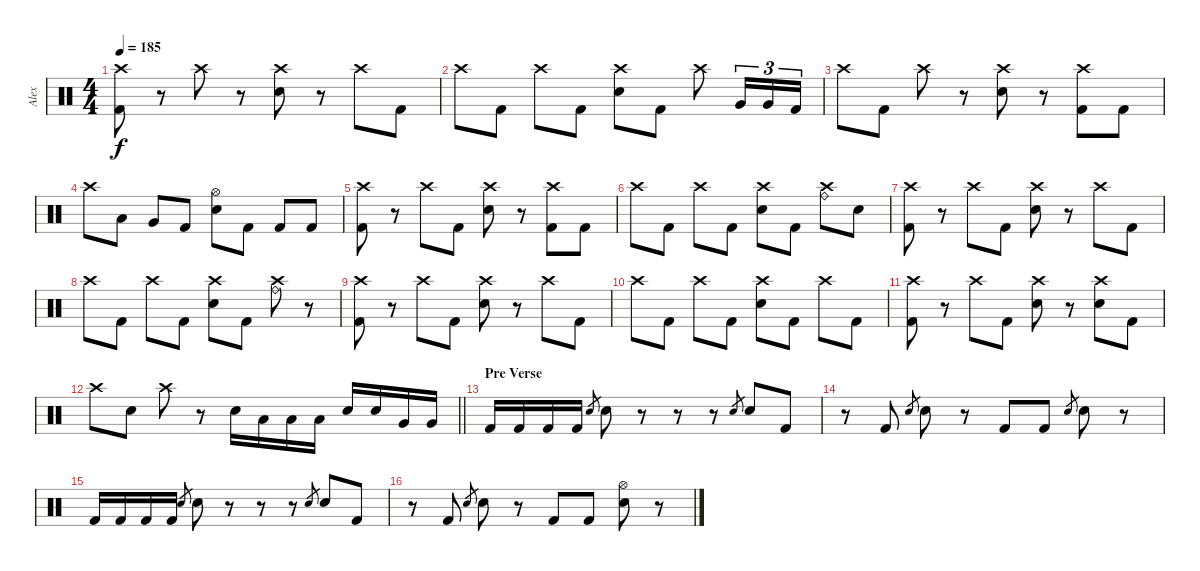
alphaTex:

\track ("Alex" "Alex") {instrument percussion}
\staff {score}
\articulation defaults
\ts (4 4)
\tempo 185
\clef neutral
\ks c
("Crash high (hit)" "Kick (hit) 2").8{dy f} r.8 "Crash high (hit)".8 r.8 ("Crash high (hit)" "Electric Snare (hit)").8 r.8 "Crash high (hit)".8 "Kick (hit) 2".8 |
"Crash high (hit)".8 "Kick (hit) 2".8 "Crash high (hit)".8 "Kick (hit) 2".8 ("Crash high (hit)" "Electric Snare (hit)").8 "Kick (hit) 2".8 "Crash high (hit)".8 "Very Low Tom (hit)".16{tu (3 2)} "Very Low Tom (hit)".16{tu (3 2)} "Kick (hit) 2".16{tu (3 2)} |
"Crash high (hit)".8 "Kick (hit) 2".8 "Crash high (hit)".8 r.8 ("Crash high (hit)" "Electric Snare (hit)").8 r.8 ("Crash high (hit)" "Kick (hit) 2").8 "Kick (hit) 2".8 |
"Crash high (hit)".8 "Low Tom (hit)".8 "Very Low Tom (hit)".8 "Kick (hit) 2".8 ("Hi-Hat (open)" "Electric Snare (hit)").8 "Kick (hit) 2".8 "Kick (hit) 2".8 "Kick (hit) 2".8 |
("Crash high (hit)" "Kick (hit) 2").8 r.8 "Crash high (hit)".8 "Kick (hit) 2".8 ("Crash high (hit)" "Electric Snare (hit)").8 r.8 ("Crash high (hit)" "Kick (hit) 2").8 "Kick (hit) 2".8 |
"Crash high (hit)".8 "Kick (hit) 2".8 "Crash high (hit)".8 "Kick (hit) 2".8 ("Crash high (hit)" "Electric Snare (hit)").8 "Kick (hit) 2".8 ("Crash high (hit)" "Ride (bell)").8 "Electric Snare (hit)".8 |
("Crash high (hit)" "Kick (hit) 2").8 r.8 "Crash high (hit)".8 "Kick (hit) 2".8 ("Crash high (hit)" "Electric Snare (hit)").8 r.8 "Crash high (hit)".8 "Kick (hit) 2".8 |
"Crash high (hit)".8 "Kick (hit) 2".8 "Crash high (hit)".8 "Kick (hit) 2".8 ("Crash high (hit)" "Electric Snare (hit)").8 "Kick (hit) 2".8 ("Crash high (hit)" "Ride (bell)").8 r.8 |
("Crash high (hit)" "Kick (hit) 2").8 r.8 "Crash high (hit)".8 "Kick (hit) 2".8 ("Crash high (hit)" "Electric Snare (hit)").8 r.8 "Crash high (hit)".8 "Kick (hit) 2".8 |
"Crash high (hit)".8 "Kick (hit) 2".8 "Crash high (hit)".8 "Kick (hit) 2".8 ("Crash high (hit)" "Electric Snare (hit)").8 "Kick (hit) 2".8 "Crash high (hit)".8 "Kick (hit) 2".8 |
("Crash high (hit)" "Kick (hit) 2").8 r.8 "Crash high (hit)".8 "Kick (hit) 2".8 ("Crash high (hit)" "Electric Snare (hit)").8 r.8 ("Crash high (hit)" "Electric Snare (hit)").8 "Kick (hit) 2".8 |
\barLineRight lightlight "Crash high (hit)".8 "Electric Snare (hit)".8 "Crash high (hit)".8
r.8 "Electric Snare (hit)".16 "Low Tom (hit)".16 "Low Tom (hit)".16 "Low Tom (hit)".16 "Electric Snare (hit)".16 "Electric Snare (hit)".16 "Very Low Tom (hit)".16 "Very Low Tom (hit)".16 |
\section ("" "Pre Verse")
"Kick (hit) 2".16 "Kick (hit) 2".16 "Kick (hit) 2".16 "Kick (hit) 2".16 "Electric Snare (hit)".8{gr} "Electric Snare (hit)".8 r.8 r.8 r.8 "Electric Snare (hit)".8{gr} "Electric Snare (hit)".8 "Kick (hit) 2".8 |
r.8 "Kick (hit) 2".8 "Electric Snare (hit)".8{gr} "Electric Snare (hit)".8 r.8 "Kick (hit) 2".8 "Kick (hit) 2".8 "Electric Snare (hit)".8{gr} "Electric Snare (hit)".8 r.8 |
"Kick (hit) 2".16 "Kick (hit) 2".16 "Kick (hit) 2".16 "Kick (hit) 2".16 "Electric Snare (hit)".8{gr} "Electric Snare (hit)".8 r.8 r.8 r.8 "Electric Snare (hit)".8{gr} "Electric Snare (hit)".8 "Kick (hit) 2".8 |
r.8 "Kick (hit) 2".8 "Electric Snare (hit)".8{gr} "Electric Snare (hit)".8 r.8 "Kick (hit) 2".8 "Kick (hit) 2".8 ("Hi-Hat (open)" "Electric Snare (hit)").8 r.8
